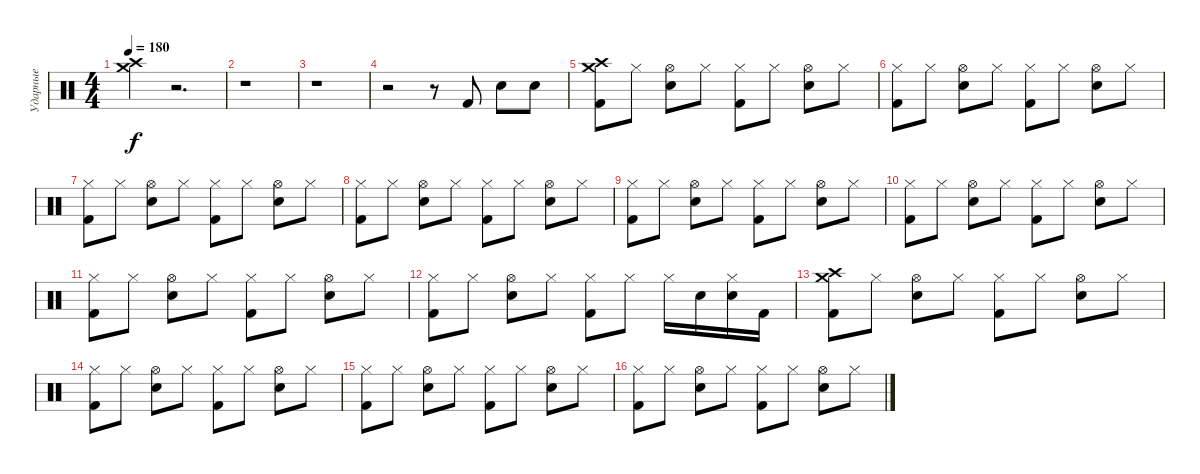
\track ("Ударные" "Ударные") {instrument percussion}
\staff {score}
\articulation defaults
\ts (4 4)
\tempo 180
\clef neutral
\ks c
("Crash high (hit)" "Crash medium (hit)").4{dy f} r.2{d} |
r.1 |
r.1 |
r.2 r.8 "Kick (hit) 2".8 "Snare (hit) 2".8 "Snare (hit) 2".8 |
("Crash high (hit)" "Crash medium (hit)" "Kick (hit) 2").8 "Hi-Hat (closed)".8 ("Hi-Hat (open)" "Snare (hit) 2").8 "Hi-Hat (closed)".8 ("Hi-Hat (closed)" "Kick (hit) 2").8 "Hi-Hat (closed)".8 ("Hi-Hat (open)" "Snare (hit) 2").8 "Hi-Hat (closed)".8 |
("Hi-Hat (closed)" "Kick (hit) 2").8 "Hi-Hat (closed)".8 ("Hi-Hat (open)" "Snare (hit) 2").8 "Hi-Hat (closed)".8 ("Hi-Hat (closed)" "Kick (hit) 2").8 "Hi-Hat (closed)".8 ("Hi-Hat (open)" "Snare (hit) 2").8 "Hi-Hat (closed)".8 |
("Hi-Hat (closed)" "Kick (hit) 2").8 "Hi-Hat (closed)".8 ("Hi-Hat (open)" "Snare (hit) 2").8 "Hi-Hat (closed)".8 ("Hi-Hat (closed)" "Kick (hit) 2").8 "Hi-Hat (closed)".8 ("Hi-Hat (open)" "Snare (hit) 2").8 "Hi-Hat (closed)".8 |
("Hi-Hat (closed)" "Kick (hit) 2").8 "Hi-Hat (closed)".8 ("Hi-Hat (open)" "Snare (hit) 2").8 "Hi-Hat (closed)".8 ("Hi-Hat (closed)" "Kick (hit) 2").8 "Hi-Hat (closed)".8 ("Hi-Hat (open)" "Snare (hit) 2").8 "Hi-Hat (closed)".8 |
("Hi-Hat (closed)" "Kick (hit) 2").8 "Hi-Hat (closed)".8 ("Hi-Hat (open)" "Snare (hit) 2").8 "Hi-Hat (closed)".8 ("Hi-Hat (closed)" "Kick (hit) 2").8 "Hi-Hat (closed)".8 ("Hi-Hat (open)" "Snare (hit) 2").8 "Hi-Hat (closed)".8 |
("Hi-Hat (closed)" "Kick (hit) 2").8 "Hi-Hat (closed)".8 ("Hi-Hat (open)" "Snare (hit) 2").8 "Hi-Hat (closed)".8 ("Hi-Hat (closed)" "Kick (hit) 2").8 "Hi-Hat (closed)".8 ("Hi-Hat (open)" "Snare (hit) 2").8 "Hi-Hat (closed)".8 |
("Hi-Hat (closed)" "Kick (hit) 2").8 "Hi-Hat (closed)".8 ("Hi-Hat (open)" "Snare (hit) 2").8 "Hi-Hat (closed)".8 ("Hi-Hat (closed)" "Kick (hit) 2").8 "Hi-Hat (closed)".8 ("Hi-Hat (open)" "Snare (hit) 2").8 "Hi-Hat (closed)".8 |
("Hi-Hat (closed)" "Kick (hit) 2").8 "Hi-Hat (closed)".8 ("Hi-Hat (open)" "Snare (hit) 2").8 "Hi-Hat (closed)".8 ("Hi-Hat (closed)" "Kick (hit) 2").8 "Hi-Hat (closed)".8 "Hi-Hat (closed)".16 "Snare (hit) 2".16 ("Hi-Hat (closed)" "Snare (hit) 2").16 "Kick (hit) 2".16 |
("Crash high (hit)" "Crash medium (hit)" "Kick (hit) 2").8 "Hi-Hat (closed)".8 ("Hi-Hat (open)" "Snare (hit) 2").8 "Hi-Hat (closed)".8 ("Hi-Hat (closed)" "Kick (hit) 2").8 "Hi-Hat (closed)".8 ("Hi-Hat (open)" "Snare (hit) 2").8 "Hi-Hat (closed)".8 |
("Hi-Hat (closed)" "Kick (hit) 2").8 "Hi-Hat (closed)".8 ("Hi-Hat (open)" "Snare (hit) 2").8 "Hi-Hat (closed)".8 ("Hi-Hat (closed)" "Kick (hit) 2").8 "Hi-Hat (closed)".8 ("Hi-Hat (open)" "Snare (hit) 2").8 "Hi-Hat (closed)".8 |
("Hi-Hat (closed)" "Kick (hit) 2").8 "Hi-Hat (closed)".8 ("Hi-Hat (open)" "Snare (hit) 2").8 "Hi-Hat (closed)".8 ("Hi-Hat (closed)" "Kick (hit) 2").8 "Hi-Hat (closed)".8 ("Hi-Hat (open)" "Snare (hit) 2").8 "Hi-Hat (closed)".8 |
("Hi-Hat (closed)" "Kick (hit) 2").8 "Hi-Hat (closed)".8 ("Hi-Hat (open)" "Snare (hit) 2").8 "Hi-Hat (closed)".8 ("Hi-Hat (closed)" "Kick (hit) 2").8 "Hi-Hat (closed)".8 ("Hi-Hat (open)" "Snare (hit) 2").8 "Hi-Hat (closed)".8
